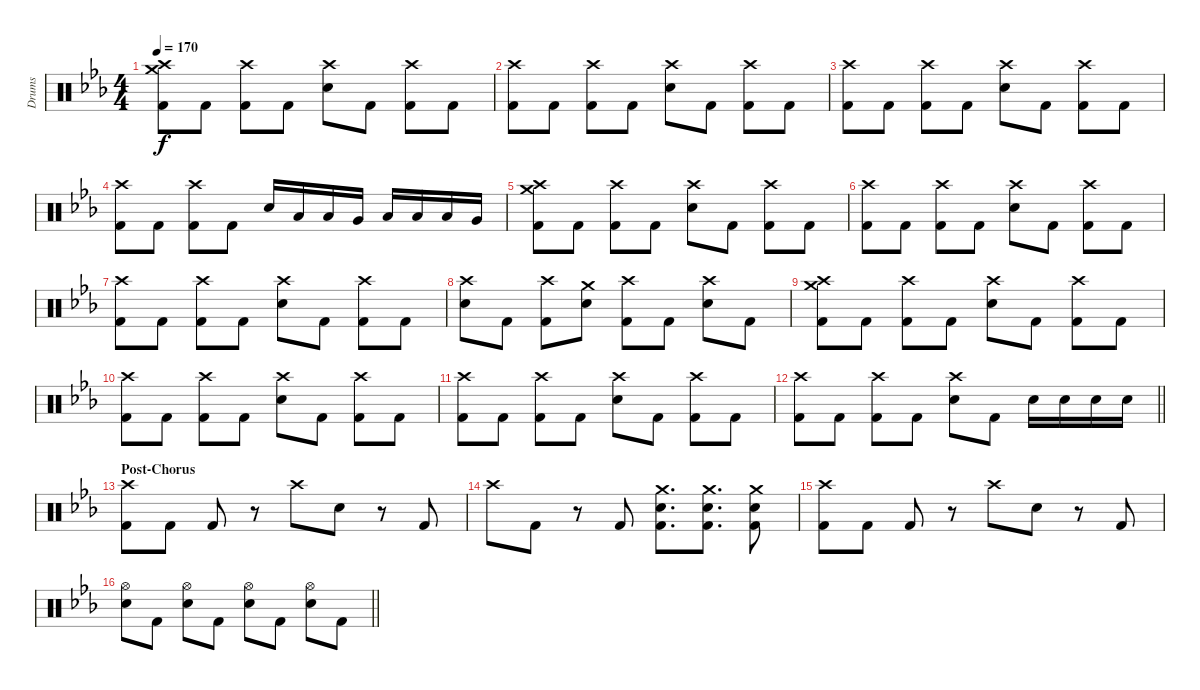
\track ("Drums" "Drums") {instrument percussion}
\staff {score}
\articulation defaults
\ts (4 4)
\tempo 170
\clef neutral
\ks cminor
("Crash high (hit)" "Crash medium (hit)" "Kick (hit) 2").8{dy f} "Kick (hit) 2".8 ("Crash high (hit)" "Kick (hit) 2").8 "Kick (hit) 2".8 ("Crash high (hit)" "Electric Snare (hit)").8 "Kick (hit) 2".8 ("Crash high (hit)" "Kick (hit) 2").8 "Kick (hit) 2".8 |
("Crash high (hit)" "Kick (hit) 2").8 "Kick (hit) 2".8 ("Crash high (hit)" "Kick (hit) 2").8 "Kick (hit) 2".8 ("Crash high (hit)" "Electric Snare (hit)").8 "Kick (hit) 2".8 ("Crash high (hit)" "Kick (hit) 2").8 "Kick (hit) 2".8 |
("Crash high (hit)" "Kick (hit) 2").8 "Kick (hit) 2".8 ("Crash high (hit)" "Kick (hit) 2").8 "Kick (hit) 2".8 ("Crash high (hit)" "Electric Snare (hit)").8 "Kick (hit) 2".8 ("Crash high (hit)" "Kick (hit) 2").8 "Kick (hit) 2".8 |
("Crash high (hit)" "Kick (hit) 2").8 "Kick (hit) 2".8 ("Crash high (hit)" "Kick (hit) 2").8 "Kick (hit) 2".8 "Electric Snare (hit)".16 "Low Tom (hit)".16 "Low Tom (hit)".16 "Very Low Tom (hit)".16 "Low Floor Tom (hit)".16 "Low Tom (hit)".16 "Low Tom (hit)".16 "Very Low Tom (hit)".16 |
("Crash high (hit)" "Crash medium (hit)" "Kick (hit) 2").8 "Kick (hit) 2".8 ("Crash high (hit)" "Kick (hit) 2").8 "Kick (hit) 2".8 ("Crash high (hit)" "Electric Snare (hit)").8 "Kick (hit) 2".8 ("Crash high (hit)" "Kick (hit) 2").8 "Kick (hit) 2".8 |
("Crash high (hit)" "Kick (hit) 2").8 "Kick (hit) 2".8 ("Crash high (hit)" "Kick (hit) 2").8 "Kick (hit) 2".8 ("Crash high (hit)" "Electric Snare (hit)").8 "Kick (hit) 2".8 ("Crash high (hit)" "Kick (hit) 2").8 "Kick (hit) 2".8 |
("Crash high (hit)" "Kick (hit) 2").8 "Kick (hit) 2".8 ("Crash high (hit)" "Kick (hit) 2").8 "Kick (hit) 2".8 ("Crash high (hit)" "Electric Snare (hit)").8 "Kick (hit) 2".8 ("Crash high (hit)" "Kick (hit) 2").8 "Kick (hit) 2".8 |
("Crash high (hit)" "Electric Snare (hit)").8 "Kick (hit) 2".8 ("Crash high (hit)" "Kick (hit) 2").8 ("Crash medium (hit)" "Electric Snare (hit)").8 ("Crash high (hit)" "Kick (hit) 2").8 "Kick (hit) 2".8 ("Crash high (hit)" "Electric Snare (hit)").8 "Kick (hit) 2".8 |
("Crash high (hit)" "Crash medium (hit)" "Kick (hit) 2").8 "Kick (hit) 2".8 ("Crash high (hit)" "Kick (hit) 2").8 "Kick (hit) 2".8 ("Crash high (hit)" "Electric Snare (hit)").8 "Kick (hit) 2".8 ("Crash high (hit)" "Kick (hit) 2").8 "Kick (hit) 2".8 |
("Crash high (hit)" "Kick (hit) 2").8 "Kick (hit) 2".8 ("Crash high (hit)" "Kick (hit) 2").8 "Kick (hit) 2".8 ("Crash high (hit)" "Electric Snare (hit)").8 "Kick (hit) 2".8 ("Crash high (hit)" "Kick (hit) 2").8 "Kick (hit) 2".8 |
("Crash high (hit)" "Kick (hit) 2").8 "Kick (hit) 2".8 ("Crash high (hit)" "Kick (hit) 2").8 "Kick (hit) 2".8 ("Crash high (hit)" "Electric Snare (hit)").8 "Kick (hit) 2".8 ("Crash high (hit)" "Kick (hit) 2").8 "Kick (hit) 2".8 |
\barLineRight lightlight
("Crash high (hit)" "Kick (hit) 2").8 "Kick (hit) 2".8 ("Crash high (hit)" "Kick (hit) 2").8 "Kick (hit) 2".8 ("Crash high (hit)" "Electric Snare (hit)").8 "Kick (hit) 2".8 "Electric Snare (hit)".16 "Electric Snare (hit)".16 "Electric Snare (hit)".16 "Electric Snare (hit)".16 |
\section ("" "Post-Chorus")
("Crash high (hit)" "Kick (hit) 2").8 "Kick (hit) 2".8 "Kick (hit) 2".8 r.8 "Crash high (hit)".8 "Electric Snare (hit)".8 r.8 "Kick (hit) 2".8 |
"Crash high (hit)".8 "Kick (hit) 2".8 r.8 "Kick (hit) 2".8 ("Crash medium (hit)" "Electric Snare (hit)" "Kick (hit) 2").8{d} ("Crash medium (hit)" "Electric Snare (hit)" "Kick (hit) 2").8{d} ("Crash medium (hit)" "Electric Snare (hit)" "Kick (hit) 2").8 |
("Crash high (hit)" "Kick (hit) 2").8 "Kick (hit) 2".8 "Kick (hit) 2".8 r.8 "Crash high (hit)".8 "Electric Snare (hit)".8 r.8 "Kick (hit) 2".8 |
\barLineRight lightlight
("Hi-Hat (open)" "Electric Snare (hit)").8 "Kick (hit) 2".8 ("Hi-Hat (open)" "Electric Snare (hit)").8 "Kick (hit) 2".8 ("Hi-Hat (open)" "Electric Snare (hit)").8 "Kick (hit) 2".8 ("Hi-Hat (open)" "Electric Snare (hit)").8 "Kick (hit) 2".8
